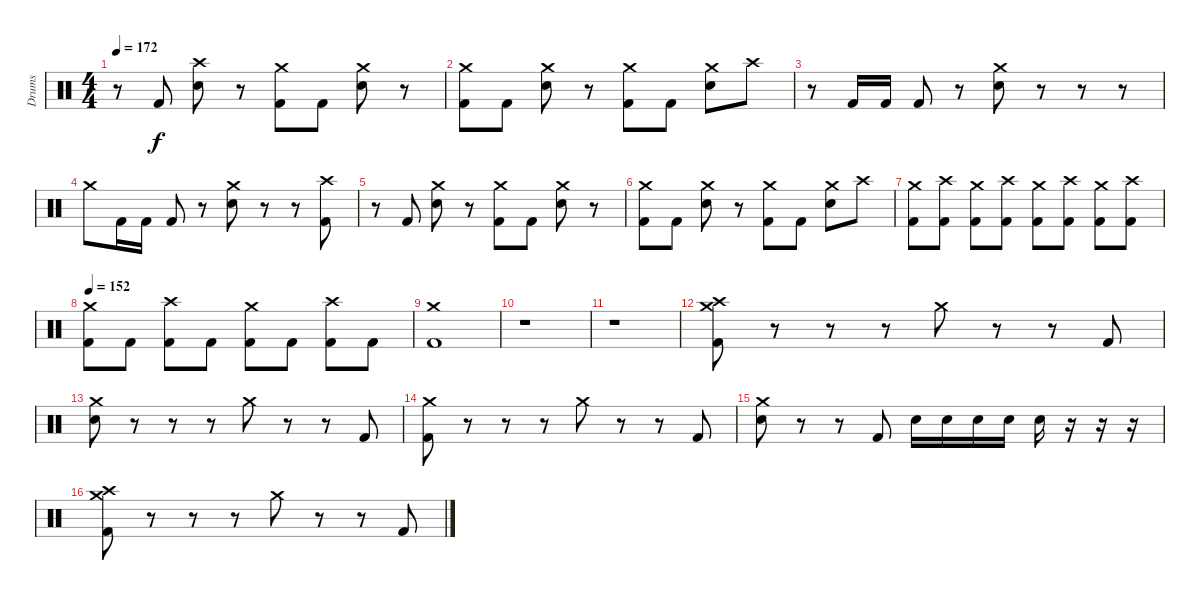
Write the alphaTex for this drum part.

\track ("Drums" "Drums") {instrument percussion}
\staff {score}
\articulation defaults
\ts (4 4)
\tempo 172
\clef neutral
\ks c
r.8{dy f} "Kick (hit) 2".8 ("Crash high (hit)" "Electric Snare (hit)").8 r.8 ("Crash medium (hit)" "Kick (hit) 2").8 "Kick (hit) 2".8 ("Crash medium (hit)" "Electric Snare (hit)").8 r.8 |
("Crash medium (hit)" "Kick (hit) 2").8 "Kick (hit) 2".8 ("Crash medium (hit)" "Electric Snare (hit)").8 r.8 ("Crash medium (hit)" "Kick (hit) 2").8 "Kick (hit) 2".8 ("Crash medium (hit)" "Electric Snare (hit)").8 "Crash high (hit)".8 |
r.8 "Kick (hit) 2".16 "Kick (hit) 2".16 "Kick (hit) 2".8 r.8 ("Crash medium (hit)" "Electric Snare (hit)").8 r.8 r.8 r.8 |
"Crash medium (hit)".8 "Kick (hit) 2".16 "Kick (hit) 2".16 "Kick (hit) 2".8 r.8 ("Crash medium (hit)" "Electric Snare (hit)").8 r.8 r.8 ("Crash high (hit)" "Kick (hit) 2").8 |
r.8 "Kick (hit) 2".8 ("Crash medium (hit)" "Electric Snare (hit)").8 r.8 ("Crash medium (hit)" "Kick (hit) 2").8 "Kick (hit) 2".8 ("Crash medium (hit)" "Electric Snare (hit)").8 r.8 |
("Crash medium (hit)" "Kick (hit) 2").8 "Kick (hit) 2".8 ("Crash medium (hit)" "Electric Snare (hit)").8 r.8 ("Crash medium (hit)" "Kick (hit) 2").8 "Kick (hit) 2".8 ("Crash medium (hit)" "Electric Snare (hit)").8 "Crash high (hit)".8 |
("Crash medium (hit)" "Kick (hit) 2").8 ("Crash high (hit)" "Kick (hit) 2").8 ("Crash medium (hit)" "Kick (hit) 2").8 ("Crash high (hit)" "Kick (hit) 2").8 ("Crash medium (hit)" "Kick (hit) 2").8 ("Crash high (hit)" "Kick (hit) 2").8 ("Crash medium (hit)" "Kick (hit) 2").8 ("Crash high (hit)" "Kick (hit) 2").8 |
\tempo 152
("Crash medium (hit)" "Kick (hit) 2").8 "Kick (hit) 2".8 ("Crash high (hit)" "Kick (hit) 2").8 "Kick (hit) 2".8 ("Crash medium (hit)" "Kick (hit) 2").8 "Kick (hit) 2".8 ("Crash high (hit)" "Kick (hit) 2").8 "Kick (hit) 2".8 |
("Crash medium (hit)" "Kick (hit) 2").1 |
r.1 |
r.1 |
("Crash medium (hit)" "Crash high (hit)" "Kick (hit) 2").8 r.8 r.8 r.8 "Crash medium (hit)".8 r.8 r.8 "Kick (hit) 2".8 |
("Crash medium (hit)" "Electric Snare (hit)").8 r.8 r.8 r.8 "Crash medium (hit)".8 r.8 r.8 "Kick (hit) 2".8 |
("Crash medium (hit)" "Kick (hit) 2").8 r.8 r.8 r.8 "Crash medium (hit)".8 r.8 r.8 "Kick (hit) 2".8 |
("Crash medium (hit)" "Electric Snare (hit)").8 r.8 r.8 "Kick (hit) 2".8 "Electric Snare (hit)".16 "Electric Snare (hit)".16 "Electric Snare (hit)".16 "Electric Snare (hit)".16 "Electric Snare (hit)".16 r.16 r.16 r.16 |
("Crash medium (hit)" "Crash high (hit)" "Kick (hit) 2").8 r.8 r.8 r.8 "Crash medium (hit)".8 r.8 r.8 "Kick (hit) 2".8
